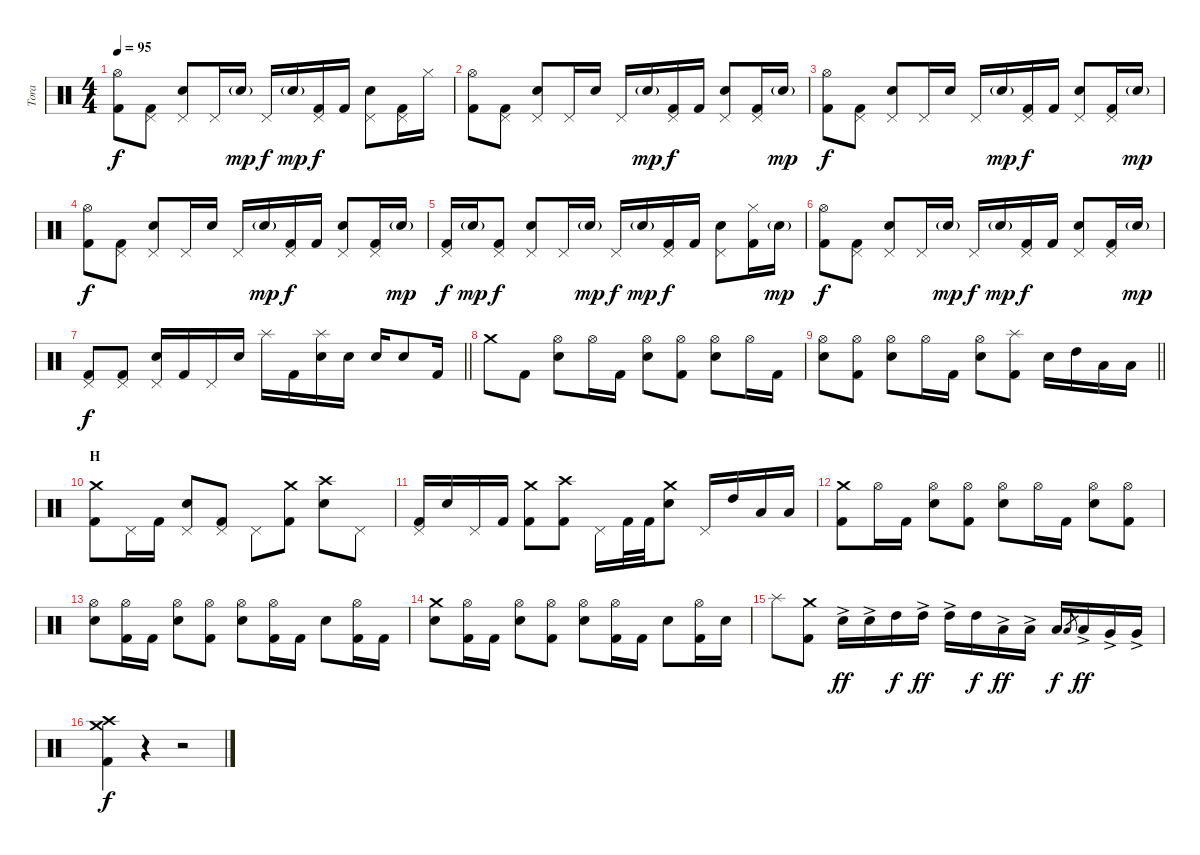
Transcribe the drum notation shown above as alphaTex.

\track ("Tora" "Tora") {instrument percussion}
\staff {score}
\articulation defaults
\ts (4 4)
\tempo 95
\clef neutral
\ks c
("Hi-Hat (open)" "Kick (hit) 2").8{dy f} ("Pedal Hi-Hat (hit)" "Kick (hit) 2").8 ("Pedal Hi-Hat (hit)" "Electric Snare (hit)").8 "Pedal Hi-Hat (hit)".16 "Electric Snare (hit)"{g}.16{dy mp} "Pedal Hi-Hat (hit)".16{dy f} "Electric Snare (hit)"{g}.16{dy mp} ("Pedal Hi-Hat (hit)" "Kick (hit) 2").16{dy f} "Kick (hit) 2".16 ("Pedal Hi-Hat (hit)" "Electric Snare (hit)").8 ("Pedal Hi-Hat (hit)" "Kick (hit) 2").16 "Hi-Hat (closed)".16 |
("Hi-Hat (open)" "Kick (hit) 2").8 ("Pedal Hi-Hat (hit)" "Kick (hit) 2").8 ("Pedal Hi-Hat (hit)" "Electric Snare (hit)").8 "Pedal Hi-Hat (hit)".16 "Electric Snare (hit)".16 "Pedal Hi-Hat (hit)".16 "Electric Snare (hit)"{g}.16{dy mp} ("Pedal Hi-Hat (hit)" "Kick (hit) 2").16{dy f} "Kick (hit) 2".16 ("Pedal Hi-Hat (hit)" "Electric Snare (hit)").8 ("Pedal Hi-Hat (hit)" "Kick (hit) 2").16 "Electric Snare (hit)"{g}.16{dy mp} |
("Hi-Hat (open)" "Kick (hit) 2").8{dy f} ("Pedal Hi-Hat (hit)" "Kick (hit) 2").8 ("Pedal Hi-Hat (hit)" "Electric Snare (hit)").8 "Pedal Hi-Hat (hit)".16 "Electric Snare (hit)".16 "Pedal Hi-Hat (hit)".16 "Electric Snare (hit)"{g}.16{dy mp} ("Pedal Hi-Hat (hit)" "Kick (hit) 2").16{dy f} "Kick (hit) 2".16 ("Pedal Hi-Hat (hit)" "Electric Snare (hit)").8 ("Pedal Hi-Hat (hit)" "Kick (hit) 2").16 "Electric Snare (hit)"{g}.16{dy mp} |
("Hi-Hat (open)" "Kick (hit) 2").8{dy f} ("Pedal Hi-Hat (hit)" "Kick (hit) 2").8 ("Pedal Hi-Hat (hit)" "Electric Snare (hit)").8 "Pedal Hi-Hat (hit)".16 "Electric Snare (hit)".16 "Pedal Hi-Hat (hit)".16 "Electric Snare (hit)"{g}.16{dy mp} ("Pedal Hi-Hat (hit)" "Kick (hit) 2").16{dy f} "Kick (hit) 2".16 ("Pedal Hi-Hat (hit)" "Electric Snare (hit)").8 ("Pedal Hi-Hat (hit)" "Kick (hit) 2").16 "Electric Snare (hit)"{g}.16{dy mp} |
("Pedal Hi-Hat (hit)" "Kick (hit) 2").16{dy f} "Electric Snare (hit)"{g}.16{dy mp} ("Pedal Hi-Hat (hit)" "Kick (hit) 2").8{dy f} ("Pedal Hi-Hat (hit)" "Electric Snare (hit)").8 "Pedal Hi-Hat (hit)".16 "Electric Snare (hit)"{g}.16{dy mp} "Pedal Hi-Hat (hit)".16{dy f} "Electric Snare (hit)"{g}.16{dy mp} ("Pedal Hi-Hat (hit)" "Kick (hit) 2").16{dy f} "Kick (hit) 2".16 ("Pedal Hi-Hat (hit)" "Electric Snare (hit)").8 ("Hi-Hat (closed)" "Kick (hit) 2").16 "Electric Snare (hit)"{g}.16{dy mp} |
("Hi-Hat (open)" "Kick (hit) 2").8{dy f} ("Pedal Hi-Hat (hit)" "Kick (hit) 2").8 ("Pedal Hi-Hat (hit)" "Electric Snare (hit)").8 "Pedal Hi-Hat (hit)".16 "Electric Snare (hit)"{g}.16{dy mp} "Pedal Hi-Hat (hit)".16{dy f} "Electric Snare (hit)"{g}.16{dy mp} ("Pedal Hi-Hat (hit)" "Kick (hit) 2").16{dy f} "Kick (hit) 2".16 ("Pedal Hi-Hat (hit)" "Electric Snare (hit)").8 ("Pedal Hi-Hat (hit)" "Kick (hit) 2").16 "Electric Snare (hit)"{g}.16{dy mp} |
\barLineRight lightlight
("Pedal Hi-Hat (hit)" "Kick (hit) 2").8{dy f} ("Pedal Hi-Hat (hit)" "Kick (hit) 2").8 ("Pedal Hi-Hat (hit)" "Electric Snare (hit)").16 "Kick (hit) 2".16 "Pedal Hi-Hat (hit)".16 "Electric Snare (hit)".16 "Splash (hit)".16 "Kick (hit) 2".16 ("Splash (hit)" "Electric Snare (hit)").16 "Electric Snare (hit)".16 "Electric Snare (hit)".16 "Electric Snare (hit)".8 "Kick (hit) 2".16 |
"Crash medium (hit)".8 "Kick (hit) 2".8 ("Hi-Hat (open)" "Electric Snare (hit)").8 "Hi-Hat (open)".16 "Kick (hit) 2".16 ("Hi-Hat (open)" "Electric Snare (hit)").8 ("Hi-Hat (open)" "Kick (hit) 2").8 ("Hi-Hat (open)" "Electric Snare (hit)").8 "Hi-Hat (open)".16 "Kick (hit) 2".16 |
\barLineRight lightlight
("Hi-Hat (open)" "Electric Snare (hit)").8 ("Hi-Hat (open)" "Kick (hit) 2").8 ("Hi-Hat (open)" "Electric Snare (hit)").8 "Hi-Hat (open)".16 "Kick (hit) 2".16 ("Hi-Hat (open)" "Electric Snare (hit)").8 ("Splash (hit)" "Kick (hit) 2").8 "Electric Snare (hit)".16 "High Tom (hit)".16 "Low Tom (hit)".16 "Low Tom (hit)".16 |
\section ("" "H")
("Crash medium (hit)" "Kick (hit) 2").8 "Pedal Hi-Hat (hit)".16 "Kick (hit) 2".16 ("Pedal Hi-Hat (hit)" "Electric Snare (hit)").8 ("Pedal Hi-Hat (hit)" "Kick (hit) 2").8 "Pedal Hi-Hat (hit)".8 ("Crash medium (hit)" "Kick (hit) 2").8 ("Crash high (hit)" "Electric Snare (hit)").8 "Pedal Hi-Hat (hit)".8 |
("Pedal Hi-Hat (hit)" "Kick (hit) 2").16 "Electric Snare (hit)".16 "Pedal Hi-Hat (hit)".16 "Kick (hit) 2".16 ("Crash medium (hit)" "Kick (hit) 2").8 ("Crash high (hit)" "Kick (hit) 2").8 "Pedal Hi-Hat (hit)".16 "Kick (hit) 2".32 "Kick (hit) 2".32 ("Crash medium (hit)" "Electric Snare (hit)").8 "Pedal Hi-Hat (hit)".16 "High Tom (hit)".16 "Low Tom (hit)".16 "Low Tom (hit)".16 |
("Crash medium (hit)" "Kick (hit) 2").8 "Hi-Hat (open)".16 "Kick (hit) 2".16 ("Hi-Hat (open)" "Electric Snare (hit)").8 ("Hi-Hat (open)" "Kick (hit) 2").8 ("Hi-Hat (open)" "Electric Snare (hit)").8 "Hi-Hat (open)".16 "Kick (hit) 2".16 ("Hi-Hat (open)" "Electric Snare (hit)").8 ("Hi-Hat (open)" "Kick (hit) 2").8 |
("Hi-Hat (open)" "Electric Snare (hit)").8 ("Hi-Hat (open)" "Kick (hit) 2").16 "Kick (hit) 2".16 ("Hi-Hat (open)" "Electric Snare (hit)").8 ("Hi-Hat (open)" "Kick (hit) 2").8 ("Hi-Hat (open)" "Electric Snare (hit)").8 ("Hi-Hat (open)" "Kick (hit) 2").16 "Kick (hit) 2".16 "Electric Snare (hit)".8 ("Hi-Hat (open)" "Kick (hit) 2").16 "Kick (hit) 2".16 |
("Crash medium (hit)" "Electric Snare (hit)").8 ("Hi-Hat (open)" "Kick (hit) 2").16 "Kick (hit) 2".16 ("Hi-Hat (open)" "Electric Snare (hit)").8 ("Hi-Hat (open)" "Kick (hit) 2").8 ("Hi-Hat (open)" "Electric Snare (hit)").8 ("Hi-Hat (open)" "Kick (hit) 2").16 "Kick (hit) 2".16 "Electric Snare (hit)".8 ("Hi-Hat (open)" "Kick (hit) 2").16 "Electric Snare (hit)".16 |
"Splash (hit)".8 ("Crash medium (hit)" "Kick (hit) 2").8 "Electric Snare (hit)"{ac}.16{dy ff} "Electric Snare (hit)"{ac}.16 "High Tom (hit)".16{dy f} "High Tom (hit)"{ac}.16{dy ff} "High Tom (hit)"{ac}.16 "High Tom (hit)".16{dy f} "Low Tom (hit)"{ac}.16{dy ff} "Low Tom (hit)"{ac}.16 "Low Tom (hit)".16{dy f} "Low Tom (hit)".8{gr} "Low Tom (hit)"{ac}.16{dy ff} "Very Low Tom (hit)"{ac}.16 "Very Low Tom (hit)"{ac}.16 |
("Crash medium (hit)" "Crash high (hit)" "Kick (hit) 2").4{dy f} r.4 r.2
